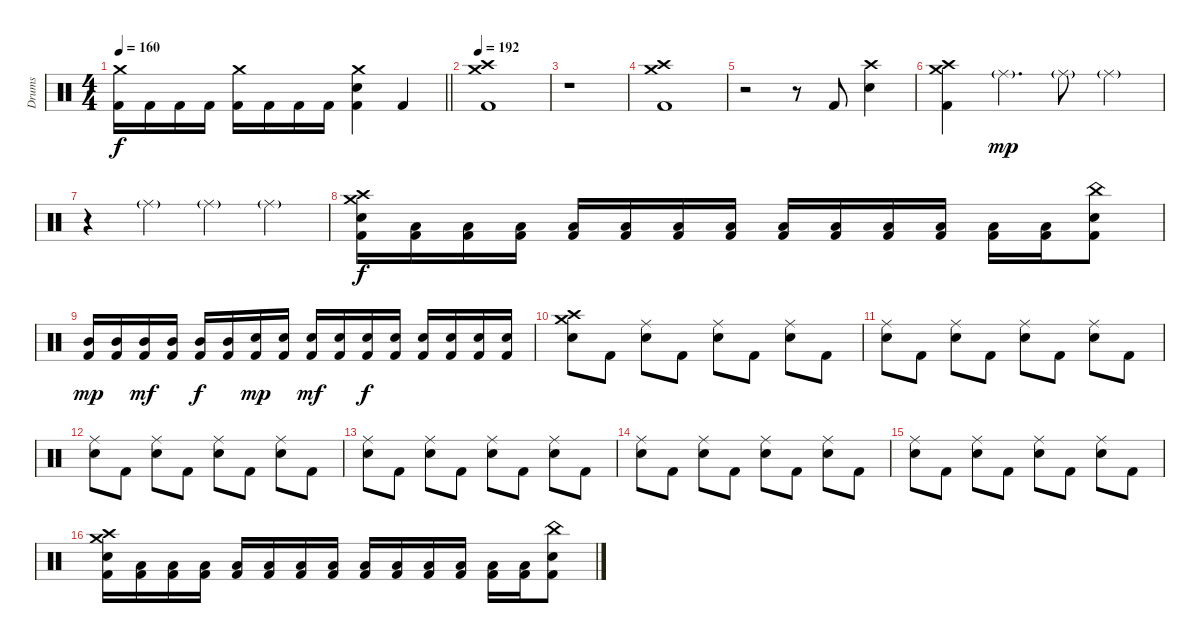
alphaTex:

\track ("Drums" "Drums") {instrument percussion}
\staff {score}
\articulation defaults
\ts (4 4)
\tempo 160
\clef neutral
\barLineRight lightlight
\ks c
("Crash medium (hit)" "Kick (hit) 2").16{dy f} "Kick (hit) 2".16 "Kick (hit) 2".16 "Kick (hit) 2".16 ("Crash medium (hit)" "Kick (hit) 2").16 "Kick (hit) 2".16 "Kick (hit) 2".16 "Kick (hit) 2".16 ("Crash medium (hit)" "Snare (hit) 2" "Kick (hit) 2").4 "Kick (hit) 2".4 |
\section ("" "")
\tempo 192
("Crash medium (hit)" "Crash high (hit)" "Kick (hit) 2").1 |
r.1 |
("Crash medium (hit)" "Crash high (hit)" "Kick (hit) 2").1 |
r.2 r.8 "Kick (hit) 2".8 ("Crash high (hit)" "Snare (hit) 2").4 |
("Crash medium (hit)" "Crash high (hit)" "Kick (hit) 2").4 "Ride (middle)"{g}.4{d dy mp} "Ride (middle)"{g}.8 "Ride (middle)"{g}.4 |
r.4 "Ride (middle)"{g}.4 "Ride (middle)"{g}.4 "Ride (middle)"{g}.4 |
("Crash medium (hit)" "Crash high (hit)" "Snare (hit) 2" "Kick (hit) 2").16{dy f} ("Low Tom (hit)" "Kick (hit) 2").16 ("Low Tom (hit)" "Kick (hit) 2").16 ("Low Tom (hit)" "Kick (hit) 2").16 ("Low Tom (hit)" "Kick (hit) 2").16 ("Low Tom (hit)" "Kick (hit) 2").16 ("Low Tom (hit)" "Kick (hit) 2").16 ("Low Tom (hit)" "Kick (hit) 2").16 ("Low Tom (hit)" "Kick (hit) 2").16 ("Low Tom (hit)" "Kick (hit) 2").16 ("Low Tom (hit)" "Kick (hit) 2").16 ("Low Tom (hit)" "Kick (hit) 2").16 ("Low Tom (hit)" "Kick (hit) 2").16 ("Low Tom (hit)" "Kick (hit) 2").16 ("China (hit)" "Snare (hit) 2" "Kick (hit) 2").8 |
("Mid Tom (hit)" "Kick (hit) 2").16{dy mp} ("Mid Tom (hit)" "Kick (hit) 2").16 ("Mid Tom (hit)" "Kick (hit) 2").16{dy mf} ("Mid Tom (hit)" "Kick (hit) 2").16 ("Mid Tom (hit)" "Kick (hit) 2").16{dy f} ("Mid Tom (hit)" "Kick (hit) 2").16 ("Snare (hit) 2" "Kick (hit) 2").16{dy mp} ("Snare (hit) 2" "Kick (hit) 2").16 ("Snare (hit) 2" "Kick (hit) 2").16{dy mf} ("Snare (hit) 2" "Kick (hit) 2").16 ("Snare (hit) 2" "Kick (hit) 2").16{dy f} ("Snare (hit) 2" "Kick (hit) 2").16 ("Snare (hit) 2" "Kick (hit) 2").16 ("Snare (hit) 2" "Kick (hit) 2").16 ("Snare (hit) 2" "Kick (hit) 2").16 ("Snare (hit) 2" "Kick (hit) 2").16 |
("Crash medium (hit)" "Crash high (hit)" "Snare (hit) 2").8 "Kick (hit) 2".8 ("Ride (middle)" "Snare (hit) 2").8 "Kick (hit) 2".8 ("Ride (middle)" "Snare (hit) 2").8 "Kick (hit) 2".8 ("Ride (middle)" "Snare (hit) 2").8 "Kick (hit) 2".8 |
("Ride (middle)" "Snare (hit) 2").8 "Kick (hit) 2".8 ("Ride (middle)" "Snare (hit) 2").8 "Kick (hit) 2".8 ("Ride (middle)" "Snare (hit) 2").8 "Kick (hit) 2".8 ("Ride (middle)" "Snare (hit) 2").8 "Kick (hit) 2".8 |
("Ride (middle)" "Snare (hit) 2").8 "Kick (hit) 2".8 ("Ride (middle)" "Snare (hit) 2").8 "Kick (hit) 2".8 ("Ride (middle)" "Snare (hit) 2").8 "Kick (hit) 2".8 ("Ride (middle)" "Snare (hit) 2").8 "Kick (hit) 2".8 |
("Ride (middle)" "Snare (hit) 2").8 "Kick (hit) 2".8 ("Ride (middle)" "Snare (hit) 2").8 "Kick (hit) 2".8 ("Ride (middle)" "Snare (hit) 2").8 "Kick (hit) 2".8 ("Ride (middle)" "Snare (hit) 2").8 "Kick (hit) 2".8 |
("Ride (middle)" "Snare (hit) 2").8 "Kick (hit) 2".8 ("Ride (middle)" "Snare (hit) 2").8 "Kick (hit) 2".8 ("Ride (middle)" "Snare (hit) 2").8 "Kick (hit) 2".8 ("Ride (middle)" "Snare (hit) 2").8 "Kick (hit) 2".8 |
("Ride (middle)" "Snare (hit) 2").8 "Kick (hit) 2".8 ("Ride (middle)" "Snare (hit) 2").8 "Kick (hit) 2".8 ("Ride (middle)" "Snare (hit) 2").8 "Kick (hit) 2".8 ("Ride (middle)" "Snare (hit) 2").8 "Kick (hit) 2".8 |
("Crash medium (hit)" "Crash high (hit)" "Snare (hit) 2" "Kick (hit) 2").16 ("Low Tom (hit)" "Kick (hit) 2").16 ("Low Tom (hit)" "Kick (hit) 2").16 ("Low Tom (hit)" "Kick (hit) 2").16 ("Low Tom (hit)" "Kick (hit) 2").16 ("Low Tom (hit)" "Kick (hit) 2").16 ("Low Tom (hit)" "Kick (hit) 2").16 ("Low Tom (hit)" "Kick (hit) 2").16 ("Low Tom (hit)" "Kick (hit) 2").16 ("Low Tom (hit)" "Kick (hit) 2").16 ("Low Tom (hit)" "Kick (hit) 2").16 ("Low Tom (hit)" "Kick (hit) 2").16 ("Low Tom (hit)" "Kick (hit) 2").16 ("Low Tom (hit)" "Kick (hit) 2").16 ("China (hit)" "Snare (hit) 2" "Kick (hit) 2").8
